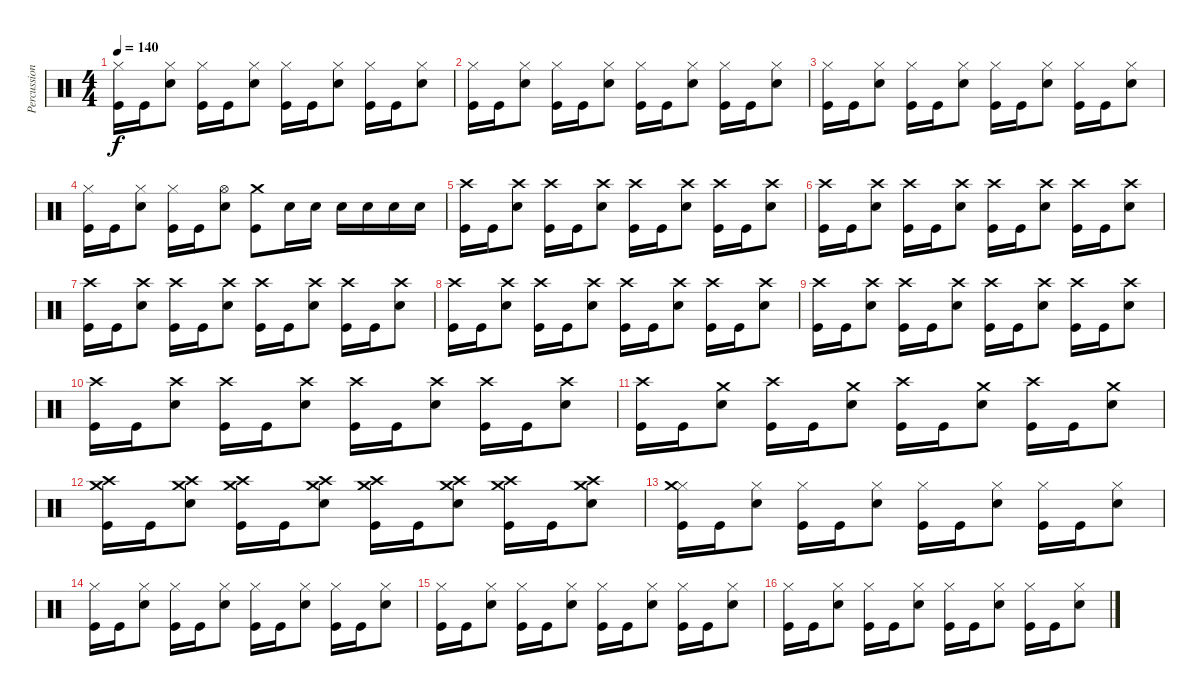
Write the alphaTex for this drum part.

\track ("Percussion" "Percussion") {instrument percussion}
\staff {score}
\articulation defaults
\ts (4 4)
\tempo 140
\clef neutral
\ks c
("Hi-Hat (closed)" "Kick (hit)").16{dy f} "Kick (hit)".16 ("Hi-Hat (closed)" "Electric Snare (hit)").8 ("Hi-Hat (closed)" "Kick (hit)").16 "Kick (hit)".16 ("Hi-Hat (closed)" "Electric Snare (hit)").8 ("Hi-Hat (closed)" "Kick (hit)").16 "Kick (hit)".16 ("Hi-Hat (closed)" "Electric Snare (hit)").8 ("Hi-Hat (closed)" "Kick (hit)").16 "Kick (hit)".16 ("Hi-Hat (closed)" "Electric Snare (hit)").8 |
("Hi-Hat (closed)" "Kick (hit)").16 "Kick (hit)".16 ("Hi-Hat (closed)" "Electric Snare (hit)").8 ("Hi-Hat (closed)" "Kick (hit)").16 "Kick (hit)".16 ("Hi-Hat (closed)" "Electric Snare (hit)").8 ("Hi-Hat (closed)" "Kick (hit)").16 "Kick (hit)".16 ("Hi-Hat (closed)" "Electric Snare (hit)").8 ("Hi-Hat (closed)" "Kick (hit)").16 "Kick (hit)".16 ("Hi-Hat (closed)" "Electric Snare (hit)").8 |
("Hi-Hat (closed)" "Kick (hit)").16 "Kick (hit)".16 ("Hi-Hat (closed)" "Electric Snare (hit)").8 ("Hi-Hat (closed)" "Kick (hit)").16 "Kick (hit)".16 ("Hi-Hat (closed)" "Electric Snare (hit)").8 ("Hi-Hat (closed)" "Kick (hit)").16 "Kick (hit)".16 ("Hi-Hat (closed)" "Electric Snare (hit)").8 ("Hi-Hat (closed)" "Kick (hit)").16 "Kick (hit)".16 ("Hi-Hat (closed)" "Electric Snare (hit)").8 |
("Hi-Hat (closed)" "Kick (hit)").16 "Kick (hit)".16 ("Hi-Hat (closed)" "Electric Snare (hit)").8 ("Hi-Hat (closed)" "Kick (hit)").16 "Kick (hit)".16 ("Hi-Hat (open)" "Electric Snare (hit)").8 ("Crash medium (hit)" "Kick (hit)").8 "Electric Snare (hit)".16 "Electric Snare (hit)".16 "Electric Snare (hit)".16 "Electric Snare (hit)".16 "Electric Snare (hit)".16 "Electric Snare (hit)".16 |
("Crash high (hit)" "Kick (hit)").16 "Kick (hit)".16 ("Crash high (hit)" "Snare (hit) 2").8 ("Crash high (hit)" "Kick (hit)").16 "Kick (hit)".16 ("Crash high (hit)" "Snare (hit) 2").8 ("Crash high (hit)" "Kick (hit)").16 "Kick (hit)".16 ("Crash high (hit)" "Electric Snare (hit)").8 ("Crash high (hit)" "Kick (hit)").16 "Kick (hit)".16 ("Crash high (hit)" "Electric Snare (hit)").8 |
("Crash high (hit)" "Kick (hit)").16 "Kick (hit)".16 ("Crash high (hit)" "Snare (hit) 2").8 ("Crash high (hit)" "Kick (hit)").16 "Kick (hit)".16 ("Crash high (hit)" "Snare (hit) 2").8 ("Crash high (hit)" "Kick (hit)").16 "Kick (hit)".16 ("Crash high (hit)" "Electric Snare (hit)").8 ("Crash high (hit)" "Kick (hit)").16 "Kick (hit)".16 ("Crash high (hit)" "Electric Snare (hit)").8 |
("Crash high (hit)" "Kick (hit)").16 "Kick (hit)".16 ("Crash high (hit)" "Snare (hit) 2").8 ("Crash high (hit)" "Kick (hit)").16 "Kick (hit)".16 ("Crash high (hit)" "Snare (hit) 2").8 ("Crash high (hit)" "Kick (hit)").16 "Kick (hit)".16 ("Crash high (hit)" "Electric Snare (hit)").8 ("Crash high (hit)" "Kick (hit)").16 "Kick (hit)".16 ("Crash high (hit)" "Electric Snare (hit)").8 |
("Crash high (hit)" "Kick (hit)").16 "Kick (hit)".16 ("Crash high (hit)" "Snare (hit) 2").8 ("Crash high (hit)" "Kick (hit)").16 "Kick (hit)".16 ("Crash high (hit)" "Snare (hit) 2").8 ("Crash high (hit)" "Kick (hit)").16 "Kick (hit)".16 ("Crash high (hit)" "Electric Snare (hit)").8 ("Crash high (hit)" "Kick (hit)").16 "Kick (hit)".16 ("Crash high (hit)" "Electric Snare (hit)").8 |
("Crash high (hit)" "Kick (hit)").16 "Kick (hit)".16 ("Crash high (hit)" "Snare (hit) 2").8 ("Crash high (hit)" "Kick (hit)").16 "Kick (hit)".16 ("Crash high (hit)" "Snare (hit) 2").8 ("Crash high (hit)" "Kick (hit)").16 "Kick (hit)".16 ("Crash high (hit)" "Electric Snare (hit)").8 ("Crash high (hit)" "Kick (hit)").16 "Kick (hit)".16 ("Crash high (hit)" "Electric Snare (hit)").8 |
("Crash high (hit)" "Kick (hit)").16 "Kick (hit)".16 ("Crash high (hit)" "Snare (hit) 2").8 ("Crash high (hit)" "Kick (hit)").16 "Kick (hit)".16 ("Crash high (hit)" "Snare (hit) 2").8 ("Crash high (hit)" "Kick (hit)").16 "Kick (hit)".16 ("Crash high (hit)" "Electric Snare (hit)").8 ("Crash high (hit)" "Kick (hit)").16 "Kick (hit)".16 ("Crash high (hit)" "Electric Snare (hit)").8 |
("Crash high (hit)" "Kick (hit)").16 "Kick (hit)".16 ("Crash medium (hit)" "Snare (hit) 2").8 ("Crash high (hit)" "Kick (hit)").16 "Kick (hit)".16 ("Crash medium (hit)" "Snare (hit) 2").8 ("Crash high (hit)" "Kick (hit)").16 "Kick (hit)".16 ("Crash medium (hit)" "Electric Snare (hit)").8 ("Crash high (hit)" "Kick (hit)").16 "Kick (hit)".16 ("Crash medium (hit)" "Electric Snare (hit)").8 |
("Crash high (hit)" "Kick (hit)" "Crash medium (hit)").16 "Kick (hit)".16 ("Crash high (hit)" "Snare (hit) 2" "Crash medium (hit)").8 ("Crash high (hit)" "Kick (hit)" "Crash medium (hit)").16 "Kick (hit)".16 ("Crash high (hit)" "Snare (hit) 2" "Crash medium (hit)").8 ("Crash high (hit)" "Kick (hit)" "Crash medium (hit)").16 "Kick (hit)".16 ("Crash high (hit)" "Electric Snare (hit)" "Crash medium (hit)").8 ("Crash high (hit)" "Kick (hit)" "Crash medium (hit)").16 "Kick (hit)".16 ("Crash high (hit)" "Electric Snare (hit)" "Crash medium (hit)").8 |
("Hi-Hat (closed)" "Kick (hit)" "Crash medium (hit)").16 "Kick (hit)".16 ("Hi-Hat (closed)" "Electric Snare (hit)").8 ("Hi-Hat (closed)" "Kick (hit)").16 "Kick (hit)".16 ("Hi-Hat (closed)" "Electric Snare (hit)").8 ("Hi-Hat (closed)" "Kick (hit)").16 "Kick (hit)".16 ("Hi-Hat (closed)" "Electric Snare (hit)").8 ("Hi-Hat (closed)" "Kick (hit)").16 "Kick (hit)".16 ("Hi-Hat (closed)" "Electric Snare (hit)").8 |
("Hi-Hat (closed)" "Kick (hit)").16 "Kick (hit)".16 ("Hi-Hat (closed)" "Electric Snare (hit)").8 ("Hi-Hat (closed)" "Kick (hit)").16 "Kick (hit)".16 ("Hi-Hat (closed)" "Electric Snare (hit)").8 ("Hi-Hat (closed)" "Kick (hit)").16 "Kick (hit)".16 ("Hi-Hat (closed)" "Electric Snare (hit)").8 ("Hi-Hat (closed)" "Kick (hit)").16 "Kick (hit)".16 ("Hi-Hat (closed)" "Electric Snare (hit)").8 |
("Hi-Hat (closed)" "Kick (hit)").16 "Kick (hit)".16 ("Hi-Hat (closed)" "Electric Snare (hit)").8 ("Hi-Hat (closed)" "Kick (hit)").16 "Kick (hit)".16 ("Hi-Hat (closed)" "Electric Snare (hit)").8 ("Hi-Hat (closed)" "Kick (hit)").16 "Kick (hit)".16 ("Hi-Hat (closed)" "Electric Snare (hit)").8 ("Hi-Hat (closed)" "Kick (hit)").16 "Kick (hit)".16 ("Hi-Hat (closed)" "Electric Snare (hit)").8 |
("Hi-Hat (closed)" "Kick (hit)").16 "Kick (hit)".16 ("Hi-Hat (closed)" "Electric Snare (hit)").8 ("Hi-Hat (closed)" "Kick (hit)").16 "Kick (hit)".16 ("Hi-Hat (closed)" "Electric Snare (hit)").8 ("Hi-Hat (closed)" "Kick (hit)").16 "Kick (hit)".16 ("Hi-Hat (closed)" "Electric Snare (hit)").8 ("Hi-Hat (closed)" "Kick (hit)").16 "Kick (hit)".16 ("Hi-Hat (closed)" "Electric Snare (hit)").8
